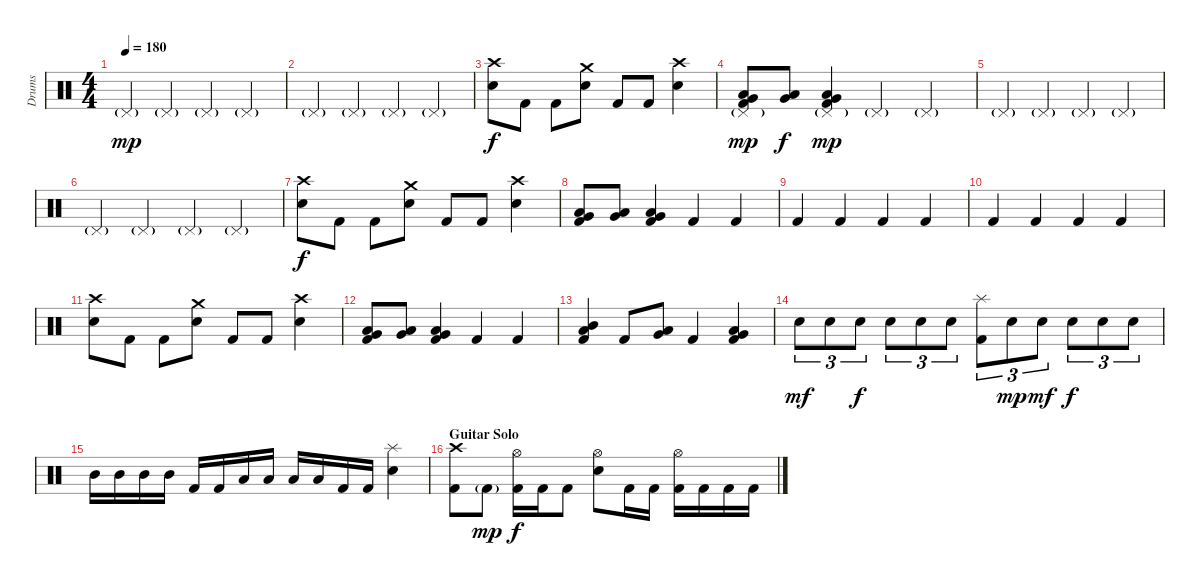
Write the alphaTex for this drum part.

\track ("Drums" "Drums") {instrument percussion}
\staff {score}
\articulation defaults
\ts (4 4)
\tempo 180
\clef neutral
\ks c "Pedal Hi-Hat (hit)"{g}.4{dy mp} "Pedal Hi-Hat (hit)"{g}.4 "Pedal Hi-Hat (hit)"{g}.4 "Pedal Hi-Hat (hit)"{g}.4
|
"Pedal Hi-Hat (hit)"{g}.4 "Pedal Hi-Hat (hit)"{g}.4 "Pedal Hi-Hat (hit)"{g}.4 "Pedal Hi-Hat (hit)"{g}.4 |
("Crash high (hit)" "Electric Snare (hit)").8{dy f} "Kick (hit) 2".8 "Kick (hit) 2".8 ("Crash medium (hit)" "Electric Snare (hit)").8 "Kick (hit) 2".8 "Kick (hit) 2".8 ("Crash high (hit)" "Electric Snare (hit)").4 |
("Low Tom (hit)" "Very Low Tom (hit)" "Pedal Hi-Hat (hit)"{g} "Kick (hit) 2").8{dy mp} ("Low Tom (hit)" "Very Low Tom (hit)").8{dy f} ("Low Tom (hit)" "Very Low Tom (hit)" "Pedal Hi-Hat (hit)"{g} "Kick (hit) 2").4{dy mp} "Pedal Hi-Hat (hit)"{g}.4 "Pedal Hi-Hat (hit)"{g}.4 |
"Pedal Hi-Hat (hit)"{g}.4 "Pedal Hi-Hat (hit)"{g}.4 "Pedal Hi-Hat (hit)"{g}.4 "Pedal Hi-Hat (hit)"{g}.4 |
"Pedal Hi-Hat (hit)"{g}.4 "Pedal Hi-Hat (hit)"{g}.4 "Pedal Hi-Hat (hit)"{g}.4 "Pedal Hi-Hat (hit)"{g}.4 |
("Crash high (hit)" "Electric Snare (hit)").8{dy f} "Kick (hit) 2".8 "Kick (hit) 2".8 ("Crash medium (hit)" "Electric Snare (hit)").8 "Kick (hit) 2".8 "Kick (hit) 2".8 ("Crash high (hit)" "Electric Snare (hit)").4 |
("Low Tom (hit)" "Very Low Tom (hit)" "Kick (hit) 2").8 ("Low Tom (hit)" "Very Low Tom (hit)").8 ("Low Tom (hit)" "Very Low Tom (hit)" "Kick (hit) 2").4 "Kick (hit) 2".4 "Kick (hit) 2".4 |
"Kick (hit) 2".4 "Kick (hit) 2".4 "Kick (hit) 2".4 "Kick (hit) 2".4 |
"Kick (hit) 2".4 "Kick (hit) 2".4 "Kick (hit) 2".4 "Kick (hit) 2".4 |
("Crash high (hit)" "Electric Snare (hit)").8 "Kick (hit) 2".8 "Kick (hit) 2".8 ("Crash medium (hit)" "Electric Snare (hit)").8 "Kick (hit) 2".8 "Kick (hit) 2".8 ("Crash high (hit)" "Electric Snare (hit)").4 |
("Low Tom (hit)" "Very Low Tom (hit)" "Kick (hit) 2").8 ("Low Tom (hit)" "Very Low Tom (hit)").8 ("Low Tom (hit)" "Very Low Tom (hit)" "Kick (hit) 2").4 "Kick (hit) 2".4 "Kick (hit) 2".4 |
("Mid Tom (hit)" "Low Tom (hit)" "Kick (hit) 2").4 "Kick (hit) 2".8 ("Low Tom (hit)" "Very Low Tom (hit)").8 "Kick (hit) 2".4 ("Very Low Tom (hit)" "Low Floor Tom (hit)" "Kick (hit) 2").4 |
"Electric Snare (hit)".8{tu (3 2) dy mf} "Electric Snare (hit)".8{tu (3 2)} "Electric Snare (hit)".8{tu (3 2) dy f} "Electric Snare (hit)".8{tu (3 2)} "Electric Snare (hit)".8{tu (3 2)} "Electric Snare (hit)".8{tu (3 2)} ("Splash (hit)" "Kick (hit) 2").8{tu (3 2)} "Electric Snare (hit)".8{tu (3 2) dy mp} "Electric Snare (hit)".8{tu (3 2) dy mf} "Electric Snare (hit)".8{tu (3 2) dy f} "Electric Snare (hit)".8{tu (3 2)} "Electric Snare (hit)".8{tu (3 2)} |
"Mid Tom (hit)".16 "Mid Tom (hit)".16 "Mid Tom (hit)".16 "Mid Tom (hit)".16 "Kick (hit) 2".16 "Kick (hit) 2".16 "Low Tom (hit)".16 "Low Tom (hit)".16 "Low Tom (hit)".16 "Low Tom (hit)".16 "Kick (hit) 2".16 "Kick (hit) 2".16 ("Splash (hit)" "Electric Snare (hit)").4 |
\section ("" "Guitar Solo")
("Crash high (hit)" "Kick (hit) 2").8 "Kick (hit) 2"{g}.8{dy mp} ("Hi-Hat (open)" "Kick (hit) 2").16{dy f} "Kick (hit) 2".16 "Kick (hit) 2".8 ("Hi-Hat (open)" "Electric Snare (hit)").8 "Kick (hit) 2".16 "Kick (hit) 2".16 ("Hi-Hat (open)" "Kick (hit) 2").16 "Kick (hit) 2".16 "Kick (hit) 2".16 "Kick (hit) 2".16
